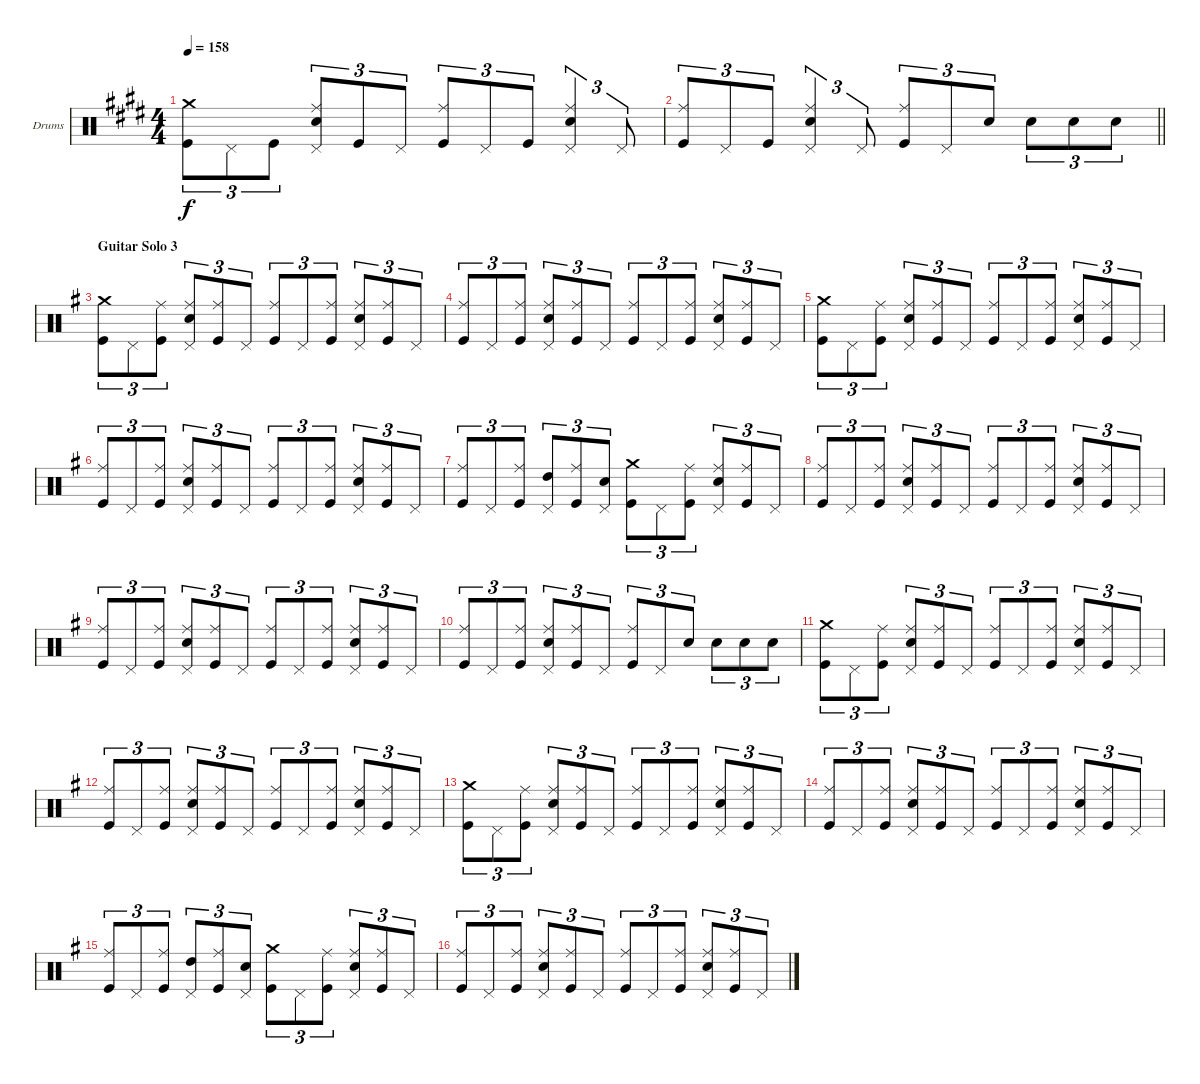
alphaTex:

\bracketExtendMode groupsimilarinstruments
\firstSystemTrackNameOrientation horizontal
\otherSystemsTrackNameOrientation horizontal
\track ("Барабаны" "Drums") {instrument percussion}
\staff {score}
\articulation defaults
\ts (4 4)
\tempo 158
\clef neutral
\ks c#minor
("Kick (hit)" "Crash medium (hit)").8{tu (3 2) dy f} "Pedal Hi-Hat (hit)".8{tu (3 2)} "Kick (hit)".8{tu (3 2)} ("Snare (hit) 2" "Ride (middle)" "Pedal Hi-Hat (hit)").8{tu (3 2)} "Kick (hit)".8{tu (3 2)} "Pedal Hi-Hat (hit)".8{tu (3 2)} ("Kick (hit)" "Ride (middle)").8{tu (3 2)} "Pedal Hi-Hat (hit)".8{tu (3 2)} "Kick (hit)".8{tu (3 2)} ("Snare (hit) 2" "Ride (middle)" "Pedal Hi-Hat (hit)").4{tu (3 2)} "Pedal Hi-Hat (hit)".8{tu (3 2)} |
\barLineRight lightlight
("Kick (hit)" "Ride (middle)").8{tu (3 2)} "Pedal Hi-Hat (hit)".8{tu (3 2)} "Kick (hit)".8{tu (3 2)} ("Snare (hit) 2" "Ride (middle)" "Pedal Hi-Hat (hit)").4{tu (3 2)} "Pedal Hi-Hat (hit)".8{tu (3 2)} ("Kick (hit)" "Ride (middle)").8{tu (3 2)} "Pedal Hi-Hat (hit)".8{tu (3 2)} "Snare (hit) 2".8{tu (3 2)} "Snare (hit) 2".8{tu (3 2)} "Snare (hit) 2".8{tu (3 2)} "Snare (hit) 2".8{tu (3 2)} |
\section ("" "Guitar Solo 3")
\ks eminor
("Kick (hit)" "Crash medium (hit)").8{tu (3 2)} "Pedal Hi-Hat (hit)".8{tu (3 2)} ("Kick (hit)" "Ride (middle)").8{tu (3 2)} ("Snare (hit) 2" "Ride (middle)" "Pedal Hi-Hat (hit)").8{tu (3 2)} ("Kick (hit)" "Ride (middle)").8{tu (3 2)} "Pedal Hi-Hat (hit)".8{tu (3 2)} ("Kick (hit)" "Ride (middle)").8{tu (3 2)} "Pedal Hi-Hat (hit)".8{tu (3 2)} ("Kick (hit)" "Ride (middle)").8{tu (3 2)} ("Snare (hit) 2" "Ride (middle)" "Pedal Hi-Hat (hit)").8{tu (3 2)} ("Kick (hit)" "Ride (middle)").8{tu (3 2)} "Pedal Hi-Hat (hit)".8{tu (3 2)} |
("Kick (hit)" "Ride (middle)").8{tu (3 2)} "Pedal Hi-Hat (hit)".8{tu (3 2)} ("Kick (hit)" "Ride (middle)").8{tu (3 2)} ("Snare (hit) 2" "Ride (middle)" "Pedal Hi-Hat (hit)").8{tu (3 2)} ("Kick (hit)" "Ride (middle)").8{tu (3 2)} "Pedal Hi-Hat (hit)".8{tu (3 2)} ("Kick (hit)" "Ride (middle)").8{tu (3 2)} "Pedal Hi-Hat (hit)".8{tu (3 2)} ("Kick (hit)" "Ride (middle)").8{tu (3 2)} ("Snare (hit) 2" "Ride (middle)" "Pedal Hi-Hat (hit)").8{tu (3 2)} ("Kick (hit)" "Ride (middle)").8{tu (3 2)} "Pedal Hi-Hat (hit)".8{tu (3 2)} |
("Kick (hit)" "Crash medium (hit)").8{tu (3 2)} "Pedal Hi-Hat (hit)".8{tu (3 2)} ("Kick (hit)" "Ride (middle)").8{tu (3 2)} ("Snare (hit) 2" "Ride (middle)" "Pedal Hi-Hat (hit)").8{tu (3 2)} ("Kick (hit)" "Ride (middle)").8{tu (3 2)} "Pedal Hi-Hat (hit)".8{tu (3 2)} ("Kick (hit)" "Ride (middle)").8{tu (3 2)} "Pedal Hi-Hat (hit)".8{tu (3 2)} ("Kick (hit)" "Ride (middle)").8{tu (3 2)} ("Snare (hit) 2" "Ride (middle)" "Pedal Hi-Hat (hit)").8{tu (3 2)} ("Kick (hit)" "Ride (middle)").8{tu (3 2)} "Pedal Hi-Hat (hit)".8{tu (3 2)} |
("Kick (hit)" "Ride (middle)").8{tu (3 2)} "Pedal Hi-Hat (hit)".8{tu (3 2)} ("Kick (hit)" "Ride (middle)").8{tu (3 2)} ("Snare (hit) 2" "Ride (middle)" "Pedal Hi-Hat (hit)").8{tu (3 2)} ("Kick (hit)" "Ride (middle)").8{tu (3 2)} "Pedal Hi-Hat (hit)".8{tu (3 2)} ("Kick (hit)" "Ride (middle)").8{tu (3 2)} "Pedal Hi-Hat (hit)".8{tu (3 2)} ("Kick (hit)" "Ride (middle)").8{tu (3 2)} ("Snare (hit) 2" "Ride (middle)" "Pedal Hi-Hat (hit)").8{tu (3 2)} ("Kick (hit)" "Ride (middle)").8{tu (3 2)} "Pedal Hi-Hat (hit)".8{tu (3 2)} |
("Kick (hit)" "Ride (middle)").8{tu (3 2)} "Pedal Hi-Hat (hit)".8{tu (3 2)} ("Kick (hit)" "Ride (middle)").8{tu (3 2)} ("High Tom (hit)" "Pedal Hi-Hat (hit)").8{tu (3 2)} ("Kick (hit)" "Ride (middle)").8{tu (3 2)} ("Pedal Hi-Hat (hit)" "Snare (hit) 2").8{tu (3 2)} ("Kick (hit)" "Crash medium (hit)").8{tu (3 2)} "Pedal Hi-Hat (hit)".8{tu (3 2)} ("Kick (hit)" "Ride (middle)").8{tu (3 2)} ("Snare (hit) 2" "Ride (middle)" "Pedal Hi-Hat (hit)").8{tu (3 2)} ("Kick (hit)" "Ride (middle)").8{tu (3 2)} "Pedal Hi-Hat (hit)".8{tu (3 2)} |
("Kick (hit)" "Ride (middle)").8{tu (3 2)} "Pedal Hi-Hat (hit)".8{tu (3 2)} ("Kick (hit)" "Ride (middle)").8{tu (3 2)} ("Snare (hit) 2" "Ride (middle)" "Pedal Hi-Hat (hit)").8{tu (3 2)} ("Kick (hit)" "Ride (middle)").8{tu (3 2)} "Pedal Hi-Hat (hit)".8{tu (3 2)} ("Kick (hit)" "Ride (middle)").8{tu (3 2)} "Pedal Hi-Hat (hit)".8{tu (3 2)} ("Kick (hit)" "Ride (middle)").8{tu (3 2)} ("Snare (hit) 2" "Ride (middle)" "Pedal Hi-Hat (hit)").8{tu (3 2)} ("Kick (hit)" "Ride (middle)").8{tu (3 2)} "Pedal Hi-Hat (hit)".8{tu (3 2)} |
("Kick (hit)" "Ride (middle)").8{tu (3 2)} "Pedal Hi-Hat (hit)".8{tu (3 2)} ("Kick (hit)" "Ride (middle)").8{tu (3 2)} ("Snare (hit) 2" "Ride (middle)" "Pedal Hi-Hat (hit)").8{tu (3 2)} ("Kick (hit)" "Ride (middle)").8{tu (3 2)} "Pedal Hi-Hat (hit)".8{tu (3 2)} ("Kick (hit)" "Ride (middle)").8{tu (3 2)} "Pedal Hi-Hat (hit)".8{tu (3 2)} ("Kick (hit)" "Ride (middle)").8{tu (3 2)} ("Snare (hit) 2" "Ride (middle)" "Pedal Hi-Hat (hit)").8{tu (3 2)} ("Kick (hit)" "Ride (middle)").8{tu (3 2)} "Pedal Hi-Hat (hit)".8{tu (3 2)} |
("Kick (hit)" "Ride (middle)").8{tu (3 2)} "Pedal Hi-Hat (hit)".8{tu (3 2)} ("Kick (hit)" "Ride (middle)").8{tu (3 2)} ("Snare (hit) 2" "Ride (middle)" "Pedal Hi-Hat (hit)").8{tu (3 2)} ("Kick (hit)" "Ride (middle)").8{tu (3 2)} "Pedal Hi-Hat (hit)".8{tu (3 2)} ("Kick (hit)" "Ride (middle)").8{tu (3 2)} "Pedal Hi-Hat (hit)".8{tu (3 2)} "Snare (hit) 2".8{tu (3 2)} "Snare (hit) 2".8{tu (3 2)} "Snare (hit) 2".8{tu (3 2)} "Snare (hit) 2".8{tu (3 2)} |
("Kick (hit)" "Crash medium (hit)").8{tu (3 2)} "Pedal Hi-Hat (hit)".8{tu (3 2)} ("Kick (hit)" "Ride (middle)").8{tu (3 2)} ("Snare (hit) 2" "Ride (middle)" "Pedal Hi-Hat (hit)").8{tu (3 2)} ("Kick (hit)" "Ride (middle)").8{tu (3 2)} "Pedal Hi-Hat (hit)".8{tu (3 2)} ("Kick (hit)" "Ride (middle)").8{tu (3 2)} "Pedal Hi-Hat (hit)".8{tu (3 2)} ("Kick (hit)" "Ride (middle)").8{tu (3 2)} ("Snare (hit) 2" "Ride (middle)" "Pedal Hi-Hat (hit)").8{tu (3 2)} ("Kick (hit)" "Ride (middle)").8{tu (3 2)} "Pedal Hi-Hat (hit)".8{tu (3 2)} |
("Kick (hit)" "Ride (middle)").8{tu (3 2)} "Pedal Hi-Hat (hit)".8{tu (3 2)} ("Kick (hit)" "Ride (middle)").8{tu (3 2)} ("Snare (hit) 2" "Ride (middle)" "Pedal Hi-Hat (hit)").8{tu (3 2)} ("Kick (hit)" "Ride (middle)").8{tu (3 2)} "Pedal Hi-Hat (hit)".8{tu (3 2)} ("Kick (hit)" "Ride (middle)").8{tu (3 2)} "Pedal Hi-Hat (hit)".8{tu (3 2)} ("Kick (hit)" "Ride (middle)").8{tu (3 2)} ("Snare (hit) 2" "Ride (middle)" "Pedal Hi-Hat (hit)").8{tu (3 2)} ("Kick (hit)" "Ride (middle)").8{tu (3 2)} "Pedal Hi-Hat (hit)".8{tu (3 2)} |
("Kick (hit)" "Crash medium (hit)").8{tu (3 2)} "Pedal Hi-Hat (hit)".8{tu (3 2)} ("Kick (hit)" "Ride (middle)").8{tu (3 2)} ("Snare (hit) 2" "Ride (middle)" "Pedal Hi-Hat (hit)").8{tu (3 2)} ("Kick (hit)" "Ride (middle)").8{tu (3 2)} "Pedal Hi-Hat (hit)".8{tu (3 2)} ("Kick (hit)" "Ride (middle)").8{tu (3 2)} "Pedal Hi-Hat (hit)".8{tu (3 2)} ("Kick (hit)" "Ride (middle)").8{tu (3 2)} ("Snare (hit) 2" "Ride (middle)" "Pedal Hi-Hat (hit)").8{tu (3 2)} ("Kick (hit)" "Ride (middle)").8{tu (3 2)} "Pedal Hi-Hat (hit)".8{tu (3 2)} |
("Kick (hit)" "Ride (middle)").8{tu (3 2)} "Pedal Hi-Hat (hit)".8{tu (3 2)} ("Kick (hit)" "Ride (middle)").8{tu (3 2)} ("Snare (hit) 2" "Ride (middle)" "Pedal Hi-Hat (hit)").8{tu (3 2)} ("Kick (hit)" "Ride (middle)").8{tu (3 2)} "Pedal Hi-Hat (hit)".8{tu (3 2)} ("Kick (hit)" "Ride (middle)").8{tu (3 2)} "Pedal Hi-Hat (hit)".8{tu (3 2)} ("Kick (hit)" "Ride (middle)").8{tu (3 2)} ("Snare (hit) 2" "Ride (middle)" "Pedal Hi-Hat (hit)").8{tu (3 2)} ("Kick (hit)" "Ride (middle)").8{tu (3 2)} "Pedal Hi-Hat (hit)".8{tu (3 2)} |
("Kick (hit)" "Ride (middle)").8{tu (3 2)} "Pedal Hi-Hat (hit)".8{tu (3 2)} ("Kick (hit)" "Ride (middle)").8{tu (3 2)} ("High Tom (hit)" "Pedal Hi-Hat (hit)").8{tu (3 2)} ("Kick (hit)" "Ride (middle)").8{tu (3 2)} ("Pedal Hi-Hat (hit)" "Snare (hit) 2").8{tu (3 2)} ("Kick (hit)" "Crash medium (hit)").8{tu (3 2)} "Pedal Hi-Hat (hit)".8{tu (3 2)} ("Kick (hit)" "Ride (middle)").8{tu (3 2)} ("Snare (hit) 2" "Ride (middle)" "Pedal Hi-Hat (hit)").8{tu (3 2)} ("Kick (hit)" "Ride (middle)").8{tu (3 2)} "Pedal Hi-Hat (hit)".8{tu (3 2)} |
("Kick (hit)" "Ride (middle)").8{tu (3 2)} "Pedal Hi-Hat (hit)".8{tu (3 2)} ("Kick (hit)" "Ride (middle)").8{tu (3 2)} ("Snare (hit) 2" "Ride (middle)" "Pedal Hi-Hat (hit)").8{tu (3 2)} ("Kick (hit)" "Ride (middle)").8{tu (3 2)} "Pedal Hi-Hat (hit)".8{tu (3 2)} ("Kick (hit)" "Ride (middle)").8{tu (3 2)} "Pedal Hi-Hat (hit)".8{tu (3 2)} ("Kick (hit)" "Ride (middle)").8{tu (3 2)} ("Snare (hit) 2" "Ride (middle)" "Pedal Hi-Hat (hit)").8{tu (3 2)} ("Kick (hit)" "Ride (middle)").8{tu (3 2)} "Pedal Hi-Hat (hit)".8{tu (3 2)}
